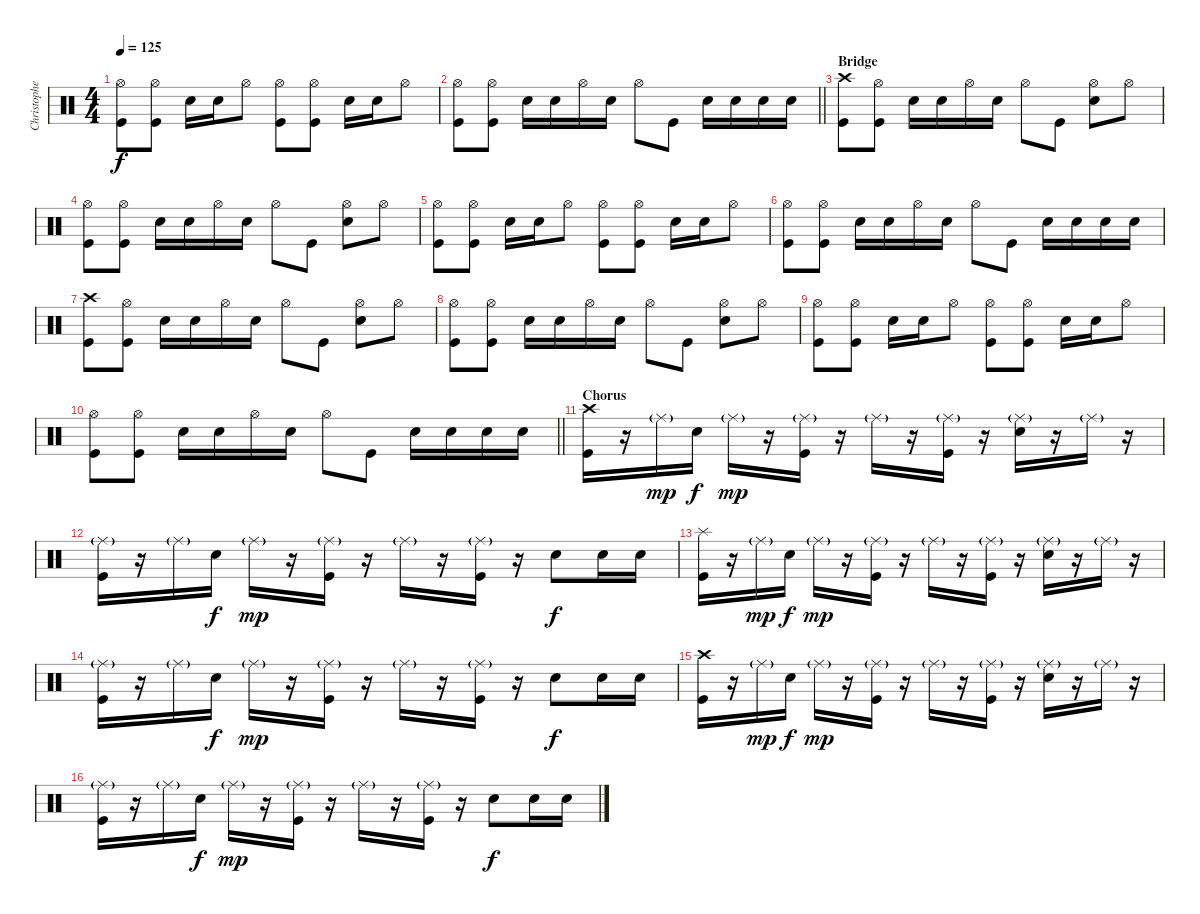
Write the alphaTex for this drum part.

\track ("Christopher - Drums" "Christophe") {instrument percussion}
\staff {score}
\articulation defaults
\ts (4 4)
\tempo 125
\clef neutral
\ks c
("Hi-Hat (open)" "Kick (hit)").8{dy f} ("Hi-Hat (open)" "Kick (hit)").8 "Electric Snare (hit)".16 "Electric Snare (hit)".16 "Hi-Hat (open)".8 ("Hi-Hat (open)" "Kick (hit)").8 ("Hi-Hat (open)" "Kick (hit)").8 "Electric Snare (hit)".16 "Electric Snare (hit)".16 "Hi-Hat (open)".8 |
\barLineRight lightlight
("Hi-Hat (open)" "Kick (hit)").8 ("Hi-Hat (open)" "Kick (hit)").8 "Electric Snare (hit)".16 "Electric Snare (hit)".16 "Hi-Hat (open)".16 "Electric Snare (hit)".16 "Hi-Hat (open)".8 "Kick (hit)".8 "Electric Snare (hit)".16 "Electric Snare (hit)".16 "Electric Snare (hit)".16 "Electric Snare (hit)".16 |
\section ("" "Bridge")
("Crash high (hit)" "Kick (hit)").8 ("Hi-Hat (open)" "Kick (hit)").8 "Electric Snare (hit)".16 "Electric Snare (hit)".16 "Hi-Hat (open)".16 "Electric Snare (hit)".16 "Hi-Hat (open)".8 "Kick (hit)".8 ("Hi-Hat (open)" "Electric Snare (hit)").8 "Hi-Hat (open)".8 |
("Hi-Hat (open)" "Kick (hit)").8 ("Hi-Hat (open)" "Kick (hit)").8 "Electric Snare (hit)".16 "Electric Snare (hit)".16 "Hi-Hat (open)".16 "Electric Snare (hit)".16 "Hi-Hat (open)".8 "Kick (hit)".8 ("Hi-Hat (open)" "Electric Snare (hit)").8 "Hi-Hat (open)".8 |
("Hi-Hat (open)" "Kick (hit)").8 ("Hi-Hat (open)" "Kick (hit)").8 "Electric Snare (hit)".16 "Electric Snare (hit)".16 "Hi-Hat (open)".8 ("Hi-Hat (open)" "Kick (hit)").8 ("Hi-Hat (open)" "Kick (hit)").8 "Electric Snare (hit)".16 "Electric Snare (hit)".16 "Hi-Hat (open)".8 |
("Hi-Hat (open)" "Kick (hit)").8 ("Hi-Hat (open)" "Kick (hit)").8 "Electric Snare (hit)".16 "Electric Snare (hit)".16 "Hi-Hat (open)".16 "Electric Snare (hit)".16 "Hi-Hat (open)".8 "Kick (hit)".8 "Electric Snare (hit)".16 "Electric Snare (hit)".16 "Electric Snare (hit)".16 "Electric Snare (hit)".16 |
("Crash high (hit)" "Kick (hit)").8 ("Hi-Hat (open)" "Kick (hit)").8 "Electric Snare (hit)".16 "Electric Snare (hit)".16 "Hi-Hat (open)".16 "Electric Snare (hit)".16 "Hi-Hat (open)".8 "Kick (hit)".8 ("Hi-Hat (open)" "Electric Snare (hit)").8 "Hi-Hat (open)".8 |
("Hi-Hat (open)" "Kick (hit)").8 ("Hi-Hat (open)" "Kick (hit)").8 "Electric Snare (hit)".16 "Electric Snare (hit)".16 "Hi-Hat (open)".16 "Electric Snare (hit)".16 "Hi-Hat (open)".8 "Kick (hit)".8 ("Hi-Hat (open)" "Electric Snare (hit)").8 "Hi-Hat (open)".8 |
("Hi-Hat (open)" "Kick (hit)").8 ("Hi-Hat (open)" "Kick (hit)").8 "Electric Snare (hit)".16 "Electric Snare (hit)".16 "Hi-Hat (open)".8 ("Hi-Hat (open)" "Kick (hit)").8 ("Hi-Hat (open)" "Kick (hit)").8 "Electric Snare (hit)".16 "Electric Snare (hit)".16 "Hi-Hat (open)".8 |
\barLineRight lightlight
("Hi-Hat (open)" "Kick (hit)").8 ("Hi-Hat (open)" "Kick (hit)").8 "Electric Snare (hit)".16 "Electric Snare (hit)".16 "Hi-Hat (open)".16 "Electric Snare (hit)".16 "Hi-Hat (open)".8 "Kick (hit)".8 "Electric Snare (hit)".16 "Electric Snare (hit)".16 "Electric Snare (hit)".16 "Electric Snare (hit)".16 |
\section ("" "Chorus")
("Crash high (hit)" "Kick (hit)").16 r.16 "Ride (middle)"{g}.16{dy mp} "Electric Snare (hit)".16{dy f} "Ride (middle)"{g}.16{dy mp} r.16 ("Ride (middle)"{g} "Kick (hit)").16 r.16 "Ride (middle)"{g}.16 r.16 ("Ride (middle)"{g} "Kick (hit)").16 r.16 ("Ride (middle)"{g} "Electric Snare (hit)").16 r.16 "Ride (middle)"{g}.16 r.16 |
("Ride (middle)"{g} "Kick (hit)").16 r.16 "Ride (middle)"{g}.16 "Electric Snare (hit)".16{dy f} "Ride (middle)"{g}.16{dy mp} r.16 ("Ride (middle)"{g} "Kick (hit)").16 r.16 "Ride (middle)"{g}.16 r.16 ("Ride (middle)"{g} "Kick (hit)").16 r.16 "Electric Snare (hit)".8{dy f} "Electric Snare (hit)".16 "Electric Snare (hit)".16 |
("Splash (hit)" "Kick (hit)").16 r.16 "Ride (middle)"{g}.16{dy mp} "Electric Snare (hit)".16{dy f} "Ride (middle)"{g}.16{dy mp} r.16 ("Ride (middle)"{g} "Kick (hit)").16 r.16 "Ride (middle)"{g}.16 r.16 ("Ride (middle)"{g} "Kick (hit)").16 r.16 ("Ride (middle)"{g} "Electric Snare (hit)").16 r.16 "Ride (middle)"{g}.16 r.16 |
("Ride (middle)"{g} "Kick (hit)").16 r.16 "Ride (middle)"{g}.16 "Electric Snare (hit)".16{dy f} "Ride (middle)"{g}.16{dy mp} r.16 ("Ride (middle)"{g} "Kick (hit)").16 r.16 "Ride (middle)"{g}.16 r.16 ("Ride (middle)"{g} "Kick (hit)").16 r.16 "Electric Snare (hit)".8{dy f} "Electric Snare (hit)".16 "Electric Snare (hit)".16 |
("Crash high (hit)" "Kick (hit)").16 r.16 "Ride (middle)"{g}.16{dy mp} "Electric Snare (hit)".16{dy f} "Ride (middle)"{g}.16{dy mp} r.16 ("Ride (middle)"{g} "Kick (hit)").16 r.16 "Ride (middle)"{g}.16 r.16 ("Ride (middle)"{g} "Kick (hit)").16 r.16 ("Ride (middle)"{g} "Electric Snare (hit)").16 r.16 "Ride (middle)"{g}.16 r.16 |
("Ride (middle)"{g} "Kick (hit)").16 r.16 "Ride (middle)"{g}.16 "Electric Snare (hit)".16{dy f} "Ride (middle)"{g}.16{dy mp} r.16 ("Ride (middle)"{g} "Kick (hit)").16 r.16 "Ride (middle)"{g}.16 r.16 ("Ride (middle)"{g} "Kick (hit)").16 r.16 "Electric Snare (hit)".8{dy f} "Electric Snare (hit)".16 "Electric Snare (hit)".16
